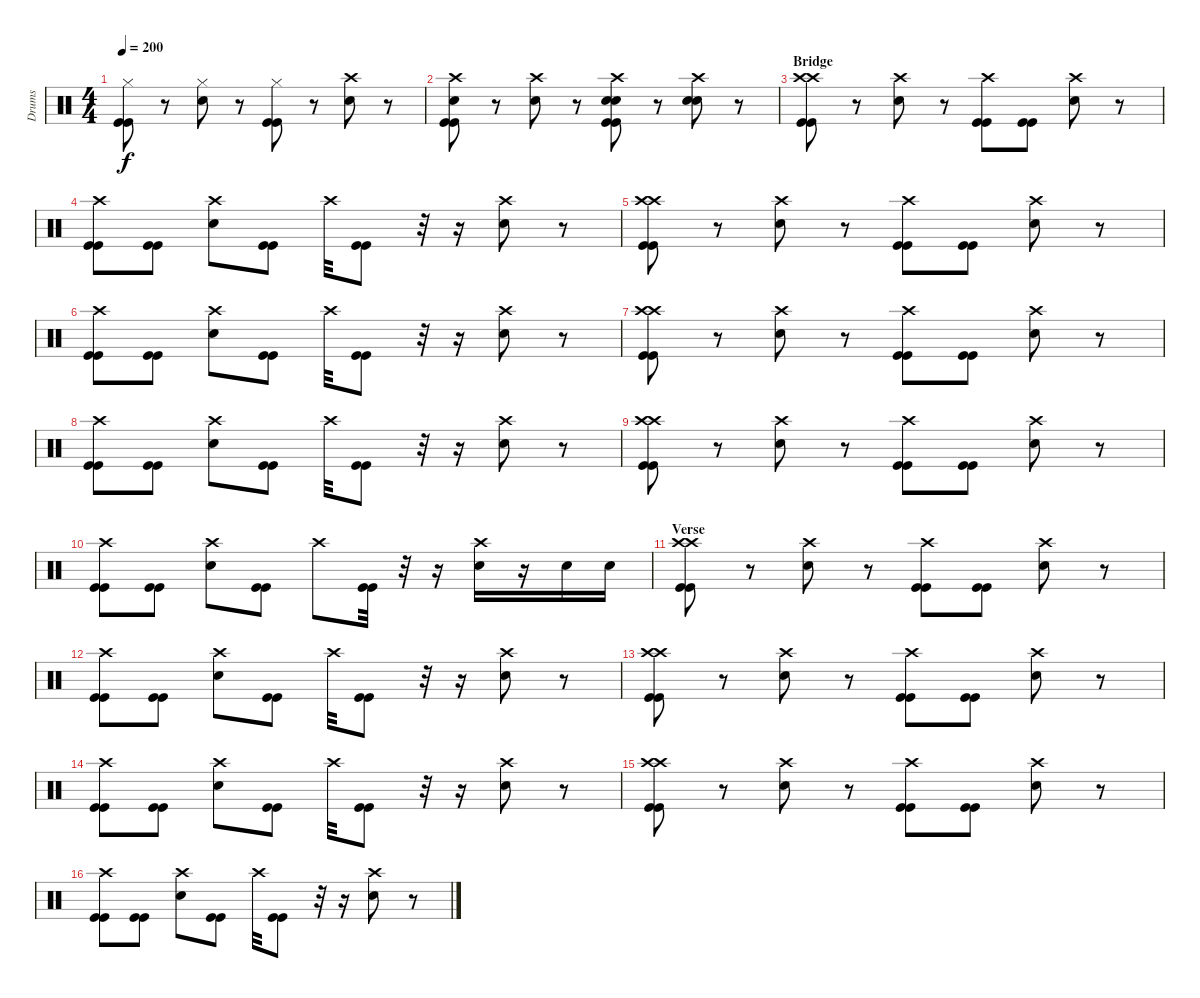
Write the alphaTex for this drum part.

\track ("Drums" "Drums") {instrument percussion}
\staff {score}
\articulation defaults
\ts (4 4)
\tempo 200
\clef neutral
\ks c
("Hi-Hat (closed)" "Kick (hit)" "Kick (hit)").8{dy f} r.8 ("Hi-Hat (closed)" "Electric Snare (hit)").8 r.8 ("Hi-Hat (closed)" "Kick (hit)" "Kick (hit)").8 r.8 ("Crash high (hit)" "Electric Snare (hit)").8 r.8 |
("Crash high (hit)" "Electric Snare (hit)" "Kick (hit)" "Kick (hit)").8 r.8 ("Crash high (hit)" "Electric Snare (hit)").8 r.8 ("Crash high (hit)" "Electric Snare (hit)" "Electric Snare (hit)" "Kick (hit)" "Kick (hit)").8 r.8 ("Crash high (hit)" "Electric Snare (hit)" "Electric Snare (hit)").8 r.8 |
\section ("" "Bridge")
("Crash high (hit)" "Crash high (hit)" "Kick (hit)" "Kick (hit)").8 r.8 ("Crash high (hit)" "Electric Snare (hit)").8 r.8 ("Crash high (hit)" "Kick (hit)" "Kick (hit)").8 ("Kick (hit)" "Kick (hit)").8 ("Crash high (hit)" "Electric Snare (hit)").8 r.8 |
("Crash high (hit)" "Kick (hit)" "Kick (hit)").8 ("Kick (hit)" "Kick (hit)").8 ("Crash high (hit)" "Electric Snare (hit)").8 ("Kick (hit)" "Kick (hit)").8 "Crash high (hit)".32 ("Kick (hit)" "Kick (hit)").8 r.32 r.16 ("Crash high (hit)" "Electric Snare (hit)").8 r.8 |
("Crash high (hit)" "Crash high (hit)" "Kick (hit)" "Kick (hit)").8 r.8 ("Crash high (hit)" "Electric Snare (hit)").8 r.8 ("Crash high (hit)" "Kick (hit)" "Kick (hit)").8 ("Kick (hit)" "Kick (hit)").8 ("Crash high (hit)" "Electric Snare (hit)").8 r.8 |
("Crash high (hit)" "Kick (hit)" "Kick (hit)").8 ("Kick (hit)" "Kick (hit)").8 ("Crash high (hit)" "Electric Snare (hit)").8 ("Kick (hit)" "Kick (hit)").8 "Crash high (hit)".32 ("Kick (hit)" "Kick (hit)").8 r.32 r.16 ("Crash high (hit)" "Electric Snare (hit)").8 r.8 |
("Crash high (hit)" "Crash high (hit)" "Kick (hit)" "Kick (hit)").8 r.8 ("Crash high (hit)" "Electric Snare (hit)").8 r.8 ("Crash high (hit)" "Kick (hit)" "Kick (hit)").8 ("Kick (hit)" "Kick (hit)").8 ("Crash high (hit)" "Electric Snare (hit)").8 r.8 |
("Crash high (hit)" "Kick (hit)" "Kick (hit)").8 ("Kick (hit)" "Kick (hit)").8 ("Crash high (hit)" "Electric Snare (hit)").8 ("Kick (hit)" "Kick (hit)").8 "Crash high (hit)".32 ("Kick (hit)" "Kick (hit)").8 r.32 r.16 ("Crash high (hit)" "Electric Snare (hit)").8 r.8 |
("Crash high (hit)" "Crash high (hit)" "Kick (hit)" "Kick (hit)").8 r.8 ("Crash high (hit)" "Electric Snare (hit)").8 r.8 ("Crash high (hit)" "Kick (hit)" "Kick (hit)").8 ("Kick (hit)" "Kick (hit)").8 ("Crash high (hit)" "Electric Snare (hit)").8 r.8 |
("Crash high (hit)" "Kick (hit)" "Kick (hit)").8 ("Kick (hit)" "Kick (hit)").8 ("Crash high (hit)" "Electric Snare (hit)").8 ("Kick (hit)" "Kick (hit)").8 "Crash high (hit)".8 ("Kick (hit)" "Kick (hit)").32 r.32 r.16 ("Crash high (hit)" "Electric Snare (hit)").16 r.16 "Electric Snare (hit)".16 "Electric Snare (hit)".16 |
\section ("" "Verse")
("Crash high (hit)" "Crash high (hit)" "Kick (hit)" "Kick (hit)").8 r.8 ("Crash high (hit)" "Electric Snare (hit)").8 r.8 ("Crash high (hit)" "Kick (hit)" "Kick (hit)").8 ("Kick (hit)" "Kick (hit)").8 ("Crash high (hit)" "Electric Snare (hit)").8 r.8 |
("Crash high (hit)" "Kick (hit)" "Kick (hit)").8 ("Kick (hit)" "Kick (hit)").8 ("Crash high (hit)" "Electric Snare (hit)").8 ("Kick (hit)" "Kick (hit)").8 "Crash high (hit)".32 ("Kick (hit)" "Kick (hit)").8 r.32 r.16 ("Crash high (hit)" "Electric Snare (hit)").8 r.8 |
("Crash high (hit)" "Crash high (hit)" "Kick (hit)" "Kick (hit)").8 r.8 ("Crash high (hit)" "Electric Snare (hit)").8 r.8 ("Crash high (hit)" "Kick (hit)" "Kick (hit)").8 ("Kick (hit)" "Kick (hit)").8 ("Crash high (hit)" "Electric Snare (hit)").8 r.8 |
("Crash high (hit)" "Kick (hit)" "Kick (hit)").8 ("Kick (hit)" "Kick (hit)").8 ("Crash high (hit)" "Electric Snare (hit)").8 ("Kick (hit)" "Kick (hit)").8 "Crash high (hit)".32 ("Kick (hit)" "Kick (hit)").8 r.32 r.16 ("Crash high (hit)" "Electric Snare (hit)").8 r.8 |
("Crash high (hit)" "Crash high (hit)" "Kick (hit)" "Kick (hit)").8 r.8 ("Crash high (hit)" "Electric Snare (hit)").8 r.8 ("Crash high (hit)" "Kick (hit)" "Kick (hit)").8 ("Kick (hit)" "Kick (hit)").8 ("Crash high (hit)" "Electric Snare (hit)").8 r.8 |
("Crash high (hit)" "Kick (hit)" "Kick (hit)").8 ("Kick (hit)" "Kick (hit)").8 ("Crash high (hit)" "Electric Snare (hit)").8 ("Kick (hit)" "Kick (hit)").8 "Crash high (hit)".32 ("Kick (hit)" "Kick (hit)").8 r.32 r.16 ("Crash high (hit)" "Electric Snare (hit)").8 r.8
